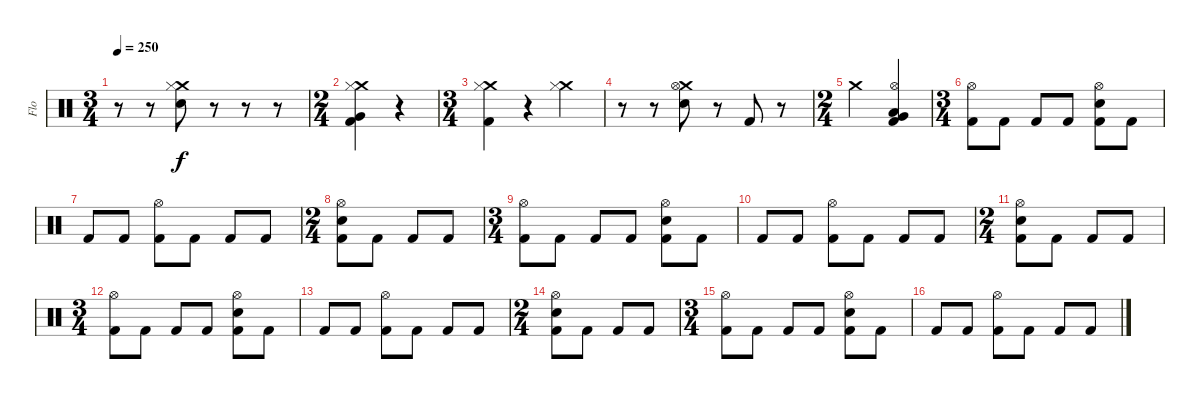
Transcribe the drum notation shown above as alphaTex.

\track ("Flo" "Flo") {instrument percussion}
\staff {score}
\articulation defaults
\ts (3 4)
\tempo 250
\clef neutral
\ks c
r.8{dy f} r.8 ("Crash medium (hit)" "Hi-Hat (closed)" "Electric Snare (hit)").8 r.8 r.8 r.8 |
\ts (2 4)
("Crash medium (hit)" "Hi-Hat (closed)" "Kick (hit) 2" "Very Low Tom (hit)").4 r.4 |
\ts (3 4)
("Crash medium (hit)" "Hi-Hat (closed)" "Kick (hit) 2").4 r.4 ("Crash medium (hit)" "Hi-Hat (closed)").4 |
r.8 r.8 ("Crash medium (hit)" "Hi-Hat (open)" "Electric Snare (hit)").8 r.8 "Kick (hit) 2".8 r.8 |
\ts (2 4)
"Crash medium (hit)".4 ("Very Low Tom (hit)" "Low Floor Tom (hit)" "Hi-Hat (open)" "Kick (hit) 2").4 |
\ts (3 4)
("Hi-Hat (open)" "Kick (hit) 2").8 "Kick (hit) 2".8 "Kick (hit) 2".8 "Kick (hit) 2".8 ("Hi-Hat (open)" "Electric Snare (hit)" "Kick (hit) 2").8 "Kick (hit) 2".8 |
"Kick (hit) 2".8 "Kick (hit) 2".8 ("Hi-Hat (open)" "Kick (hit) 2").8 "Kick (hit) 2".8 "Kick (hit) 2".8 "Kick (hit) 2".8 |
\ts (2 4)
("Hi-Hat (open)" "Electric Snare (hit)" "Kick (hit) 2").8 "Kick (hit) 2".8 "Kick (hit) 2".8 "Kick (hit) 2".8 |
\ts (3 4)
("Hi-Hat (open)" "Kick (hit) 2").8 "Kick (hit) 2".8 "Kick (hit) 2".8 "Kick (hit) 2".8 ("Hi-Hat (open)" "Electric Snare (hit)" "Kick (hit) 2").8 "Kick (hit) 2".8 |
"Kick (hit) 2".8 "Kick (hit) 2".8 ("Hi-Hat (open)" "Kick (hit) 2").8 "Kick (hit) 2".8 "Kick (hit) 2".8 "Kick (hit) 2".8 |
\ts (2 4)
("Hi-Hat (open)" "Electric Snare (hit)" "Kick (hit) 2").8 "Kick (hit) 2".8 "Kick (hit) 2".8 "Kick (hit) 2".8 |
\ts (3 4)
("Hi-Hat (open)" "Kick (hit) 2").8 "Kick (hit) 2".8 "Kick (hit) 2".8 "Kick (hit) 2".8 ("Hi-Hat (open)" "Electric Snare (hit)" "Kick (hit) 2").8 "Kick (hit) 2".8 |
"Kick (hit) 2".8 "Kick (hit) 2".8 ("Hi-Hat (open)" "Kick (hit) 2").8 "Kick (hit) 2".8 "Kick (hit) 2".8 "Kick (hit) 2".8 |
\ts (2 4)
("Hi-Hat (open)" "Electric Snare (hit)" "Kick (hit) 2").8 "Kick (hit) 2".8 "Kick (hit) 2".8 "Kick (hit) 2".8 |
\ts (3 4)
("Hi-Hat (open)" "Kick (hit) 2").8 "Kick (hit) 2".8 "Kick (hit) 2".8 "Kick (hit) 2".8 ("Hi-Hat (open)" "Electric Snare (hit)" "Kick (hit) 2").8 "Kick (hit) 2".8 |
"Kick (hit) 2".8 "Kick (hit) 2".8 ("Hi-Hat (open)" "Kick (hit) 2").8 "Kick (hit) 2".8 "Kick (hit) 2".8 "Kick (hit) 2".8
